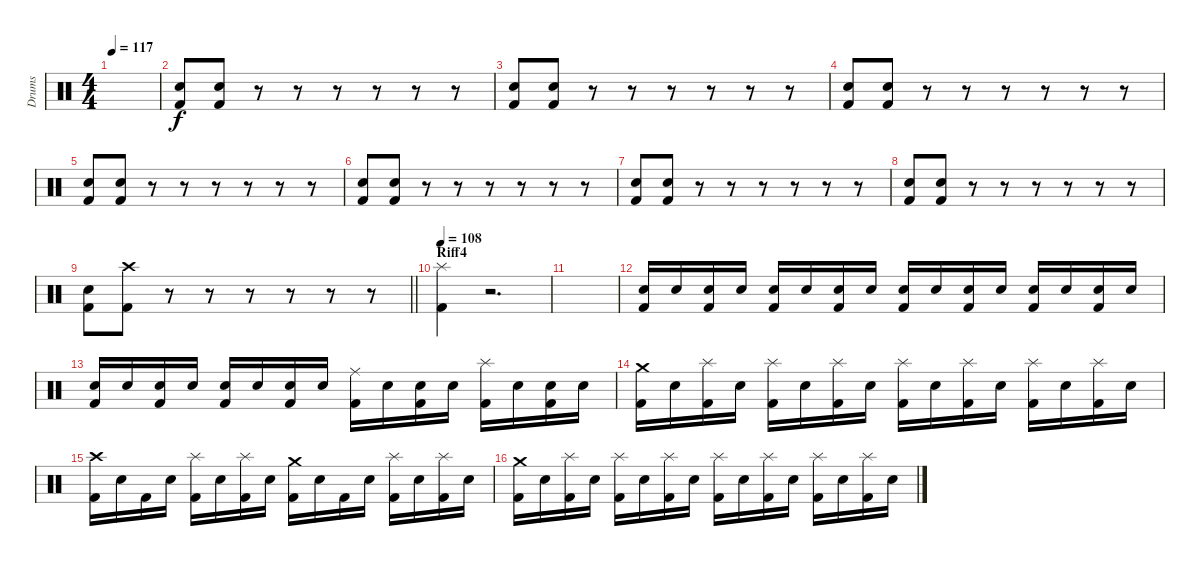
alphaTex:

\track ("Drums" "Drums") {instrument percussion}
\staff {score}
\articulation defaults
\ts (4 4)
\tempo 117
\clef neutral
\ks c
|
("Snare (hit) 2" "Kick (hit) 2").8 ("Snare (hit) 2" "Kick (hit) 2").8 r.8 r.8 r.8 r.8 r.8 r.8 |
("Snare (hit) 2" "Kick (hit) 2").8 ("Snare (hit) 2" "Kick (hit) 2").8 r.8 r.8 r.8 r.8 r.8 r.8 |
("Snare (hit) 2" "Kick (hit) 2").8 ("Snare (hit) 2" "Kick (hit) 2").8 r.8 r.8 r.8 r.8 r.8 r.8 |
("Snare (hit) 2" "Kick (hit) 2").8 ("Snare (hit) 2" "Kick (hit) 2").8 r.8 r.8 r.8 r.8 r.8 r.8 |
("Snare (hit) 2" "Kick (hit) 2").8 ("Snare (hit) 2" "Kick (hit) 2").8 r.8 r.8 r.8 r.8 r.8 r.8 |
("Snare (hit) 2" "Kick (hit) 2").8 ("Snare (hit) 2" "Kick (hit) 2").8 r.8 r.8 r.8 r.8 r.8 r.8 |
("Snare (hit) 2" "Kick (hit) 2").8 ("Snare (hit) 2" "Kick (hit) 2").8 r.8 r.8 r.8 r.8 r.8 r.8 |
\barLineRight lightlight
("Snare (hit) 2" "Kick (hit) 2").8 ("Crash high (hit)" "Kick (hit) 2").8 r.8 r.8 r.8 r.8 r.8 r.8 |
\section ("" "Riff4")
\tempo 108
("Splash (hit)" "Kick (hit) 2").4 r.2{d} |
|
("Snare (hit) 2" "Kick (hit) 2").16{volume 6} "Snare (hit) 2".16 ("Snare (hit) 2" "Kick (hit) 2").16 "Snare (hit) 2".16 ("Snare (hit) 2" "Kick (hit) 2").16{volume 7} "Snare (hit) 2".16 ("Snare (hit) 2" "Kick (hit) 2").16 "Snare (hit) 2".16 ("Snare (hit) 2" "Kick (hit) 2").16{volume 8} "Snare (hit) 2".16 ("Snare (hit) 2" "Kick (hit) 2").16 "Snare (hit) 2".16 ("Snare (hit) 2" "Kick (hit) 2").16{volume 9} "Snare (hit) 2".16 ("Snare (hit) 2" "Kick (hit) 2").16 "Snare (hit) 2".16 |
("Snare (hit) 2" "Kick (hit) 2").16{volume 10} "Snare (hit) 2".16 ("Snare (hit) 2" "Kick (hit) 2").16 "Snare (hit) 2".16 ("Snare (hit) 2" "Kick (hit) 2").16{volume 11} "Snare (hit) 2".16 ("Snare (hit) 2" "Kick (hit) 2").16 "Snare (hit) 2".16 ("Ride (middle)" "Kick (hit) 2").16{volume 12} "Snare (hit) 2".16 ("Snare (hit) 2" "Kick (hit) 2").16 "Snare (hit) 2".16 ("Splash (hit)" "Kick (hit) 2").16{volume 13} "Snare (hit) 2".16 ("Snare (hit) 2" "Kick (hit) 2").16 "Snare (hit) 2".16 |
("Crash medium (hit)" "Kick (hit) 2").16 "Snare (hit) 2".16 ("Splash (hit)" "Kick (hit) 2").16 "Snare (hit) 2".16 ("Splash (hit)" "Kick (hit) 2").16 "Snare (hit) 2".16 ("Splash (hit)" "Kick (hit) 2").16 "Snare (hit) 2".16 ("Splash (hit)" "Kick (hit) 2").16 "Snare (hit) 2".16 ("Splash (hit)" "Kick (hit) 2").16 "Snare (hit) 2".16 ("Splash (hit)" "Kick (hit) 2").16 "Snare (hit) 2".16 ("Splash (hit)" "Kick (hit) 2").16 "Snare (hit) 2".16 |
("Crash high (hit)" "Kick (hit) 2").16 "Snare (hit) 2".16 "Kick (hit) 2".16 "Snare (hit) 2".16 ("Splash (hit)" "Kick (hit) 2").16 "Snare (hit) 2".16 ("Splash (hit)" "Kick (hit) 2").16 "Snare (hit) 2".16 ("Crash medium (hit)" "Kick (hit) 2").16 "Snare (hit) 2".16 "Kick (hit) 2".16 "Snare (hit) 2".16 ("Splash (hit)" "Kick (hit) 2").16 "Snare (hit) 2".16 ("Splash (hit)" "Kick (hit) 2").16 "Snare (hit) 2".16 |
("Crash medium (hit)" "Kick (hit) 2").16 "Snare (hit) 2".16 ("Splash (hit)" "Kick (hit) 2").16 "Snare (hit) 2".16 ("Splash (hit)" "Kick (hit) 2").16 "Snare (hit) 2".16 ("Splash (hit)" "Kick (hit) 2").16 "Snare (hit) 2".16 ("Splash (hit)" "Kick (hit) 2").16 "Snare (hit) 2".16 ("Splash (hit)" "Kick (hit) 2").16 "Snare (hit) 2".16 ("Splash (hit)" "Kick (hit) 2").16 "Snare (hit) 2".16 ("Splash (hit)" "Kick (hit) 2").16 "Snare (hit) 2".16
